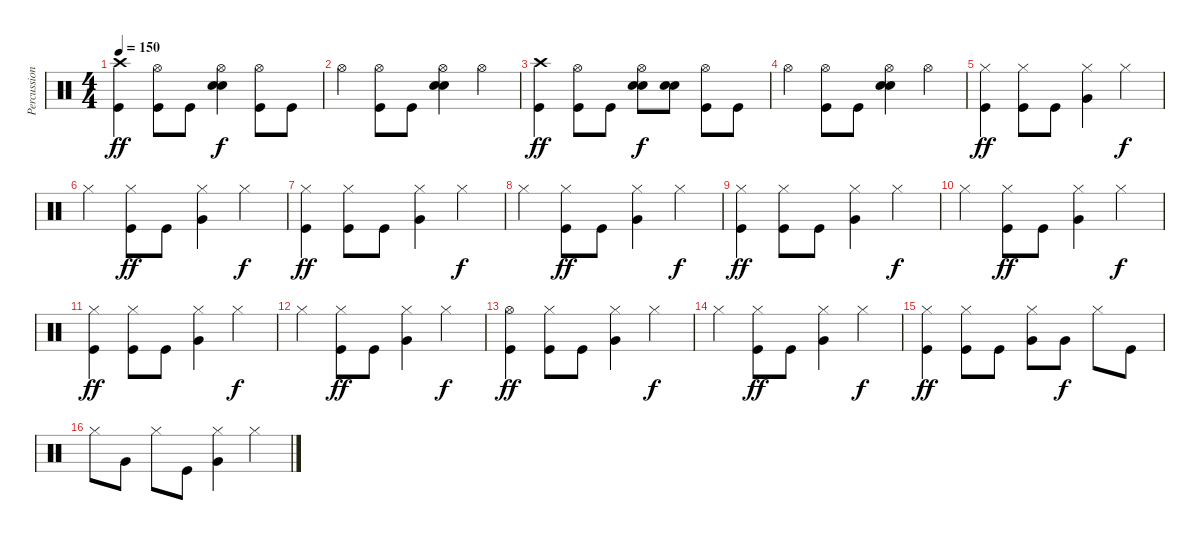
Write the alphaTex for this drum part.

\track ("Percussion" "Percussion") {instrument percussion}
\staff {score}
\articulation defaults
\ts (4 4)
\tempo 150
\clef neutral
\ks c
("Crash high (hit)" "Kick (hit)").4{dy ff} ("Hi-Hat (open)" "Kick (hit)").8 "Kick (hit)".8 ("Hi-Hat (open)" "Snare (hit) 2" "Snare (hit) 2").4{dy f} ("Hi-Hat (open)" "Kick (hit)").8 "Kick (hit)".8 |
"Hi-Hat (open)".4 ("Hi-Hat (open)" "Kick (hit)").8 "Kick (hit)".8 ("Hi-Hat (open)" "Snare (hit) 2" "Snare (hit) 2").4 "Hi-Hat (open)".4 |
("Crash high (hit)" "Kick (hit)").4{dy ff} ("Hi-Hat (open)" "Kick (hit)").8 "Kick (hit)".8 ("Hi-Hat (open)" "Snare (hit) 2" "Snare (hit) 2").8{dy f} ("Snare (hit) 2" "Snare (hit) 2").8 ("Hi-Hat (open)" "Kick (hit)").8 "Kick (hit)".8 |
"Hi-Hat (open)".4 ("Hi-Hat (open)" "Kick (hit)").8 "Kick (hit)".8 ("Hi-Hat (open)" "Snare (hit) 2" "Snare (hit) 2").4 "Hi-Hat (open)".4 |
("Hi-Hat (closed)" "Kick (hit)").4{dy ff} ("Hi-Hat (closed)" "Kick (hit)").8 "Kick (hit)".8 ("Hi-Hat (closed)" "Very Low Tom (hit)").4 "Hi-Hat (closed)".4{dy f} |
"Hi-Hat (closed)".4 ("Hi-Hat (closed)" "Kick (hit)").8{dy ff} "Kick (hit)".8 ("Hi-Hat (closed)" "Very Low Tom (hit)").4 "Hi-Hat (closed)".4{dy f} |
("Hi-Hat (closed)" "Kick (hit)").4{dy ff} ("Hi-Hat (closed)" "Kick (hit)").8 "Kick (hit)".8 ("Hi-Hat (closed)" "Very Low Tom (hit)").4 "Hi-Hat (closed)".4{dy f} |
"Hi-Hat (closed)".4 ("Hi-Hat (closed)" "Kick (hit)").8{dy ff} "Kick (hit)".8 ("Hi-Hat (closed)" "Very Low Tom (hit)").4 "Hi-Hat (closed)".4{dy f} |
("Hi-Hat (closed)" "Kick (hit)").4{dy ff} ("Hi-Hat (closed)" "Kick (hit)").8 "Kick (hit)".8 ("Hi-Hat (closed)" "Very Low Tom (hit)").4 "Hi-Hat (closed)".4{dy f} |
"Hi-Hat (closed)".4 ("Hi-Hat (closed)" "Kick (hit)").8{dy ff} "Kick (hit)".8 ("Hi-Hat (closed)" "Very Low Tom (hit)").4 "Hi-Hat (closed)".4{dy f} |
("Hi-Hat (closed)" "Kick (hit)").4{dy ff} ("Hi-Hat (closed)" "Kick (hit)").8 "Kick (hit)".8 ("Hi-Hat (closed)" "Very Low Tom (hit)").4 "Hi-Hat (closed)".4{dy f} |
"Hi-Hat (closed)".4 ("Hi-Hat (closed)" "Kick (hit)").8{dy ff} "Kick (hit)".8 ("Hi-Hat (closed)" "Very Low Tom (hit)").4 "Hi-Hat (closed)".4{dy f} |
("Hi-Hat (open)" "Kick (hit)").4{dy ff} ("Hi-Hat (closed)" "Kick (hit)").8 "Kick (hit)".8 ("Hi-Hat (closed)" "Very Low Tom (hit)").4 "Hi-Hat (closed)".4{dy f} |
"Hi-Hat (closed)".4 ("Hi-Hat (closed)" "Kick (hit)").8{dy ff} "Kick (hit)".8 ("Hi-Hat (closed)" "Very Low Tom (hit)").4 "Hi-Hat (closed)".4{dy f} |
("Hi-Hat (closed)" "Kick (hit)").4{dy ff} ("Hi-Hat (closed)" "Kick (hit)").8 "Kick (hit)".8 ("Hi-Hat (closed)" "Very Low Tom (hit)").8 "Very Low Tom (hit)".8{dy f} "Hi-Hat (closed)".8 "Kick (hit)".8 |
"Hi-Hat (closed)".8 "Very Low Tom (hit)".8 "Hi-Hat (closed)".8 "Kick (hit)".8 ("Hi-Hat (closed)" "Very Low Tom (hit)").4 "Hi-Hat (closed)".4
